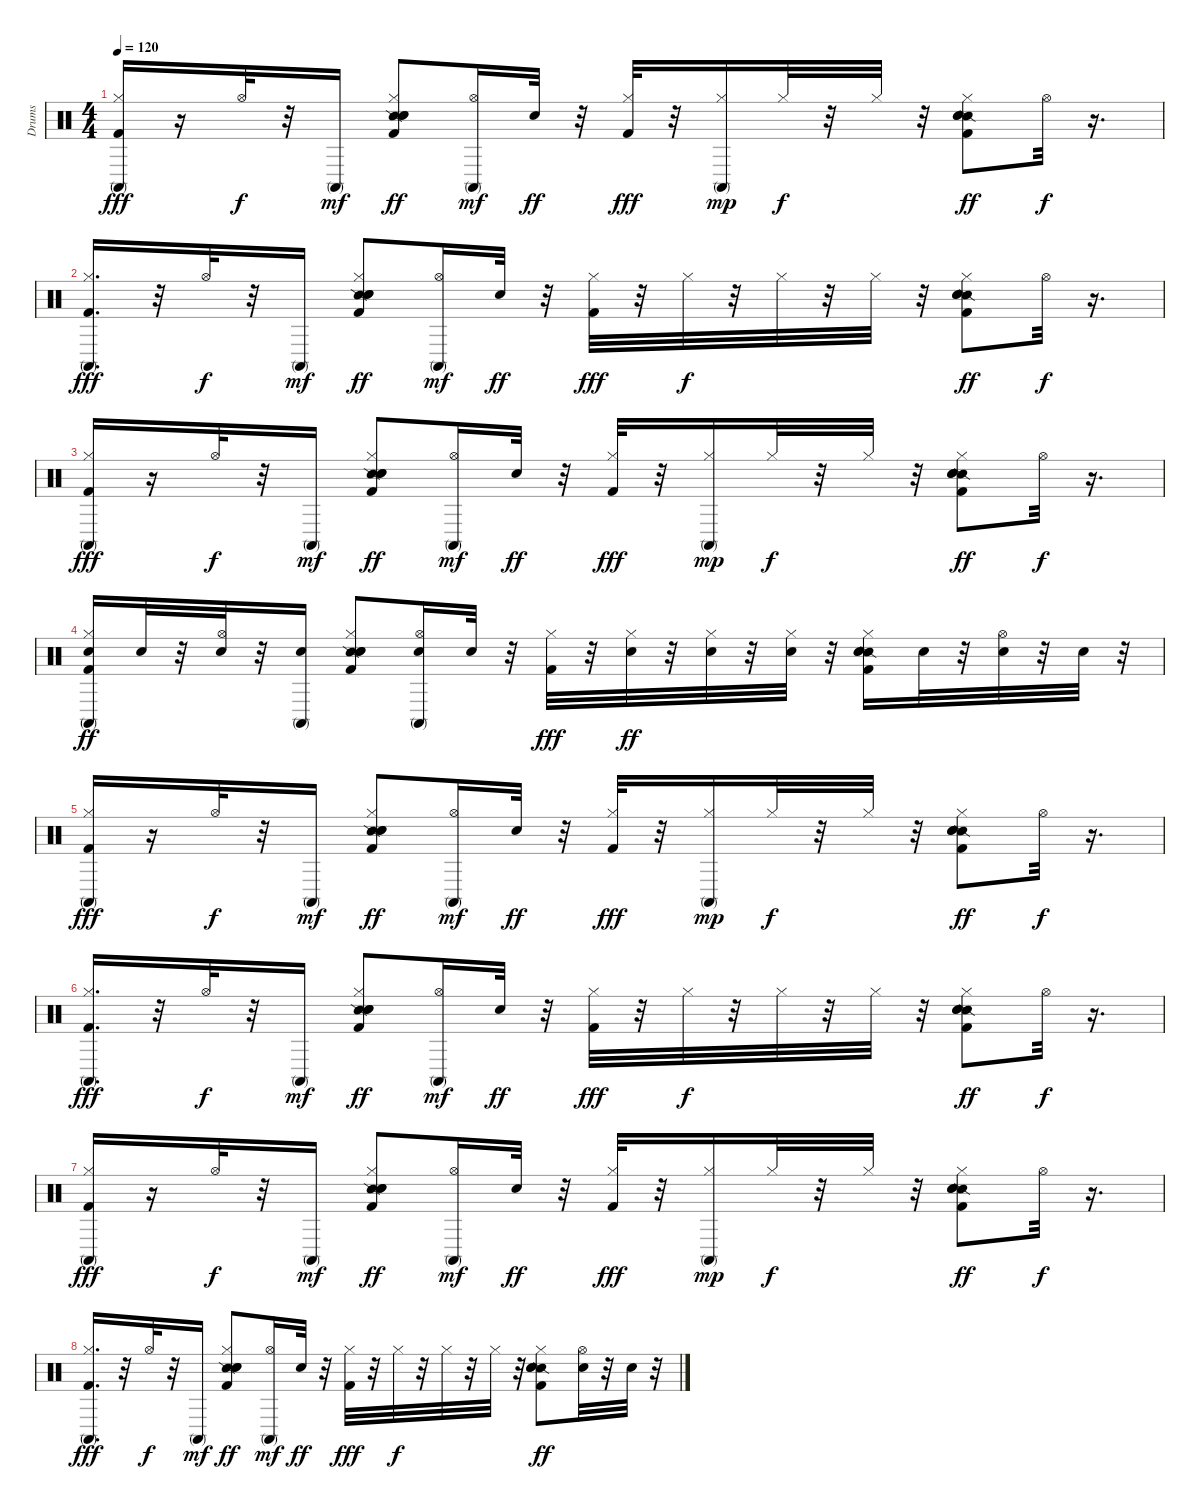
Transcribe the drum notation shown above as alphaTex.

\track ("Drums" "Drums") {instrument percussion}
\staff {score}
\articulation defaults
\ts (4 4)
\tempo 120
\clef neutral
\ks c
("Conga high (mute)" "Kick (hit) 2" "Hi-Hat (closed)").16{dy fff} r.16 "Hi-Hat (open)".32{dy f} r.32 "Conga high (mute)".16{dy mf} ("Snare (side stick) 2" "Kick (hit) 2" "Snare (hit) 2" "Hi-Hat (closed)" "Hand Clap (hit)").8{dy ff} ("Conga high (mute)" "Hi-Hat (open)").16{dy mf} "Snare (hit) 2".32{dy ff} r.32 ("Kick (hit) 2" "Hi-Hat (closed)").32{dy fff} r.32 ("Conga high (mute)" "Hi-Hat (closed)").16{dy mp} "Hi-Hat (closed)".32{dy f} r.32 "Hi-Hat (closed)".32 r.32 ("Snare (side stick) 2" "Kick (hit) 2" "Snare (hit) 2" "Hi-Hat (closed)" "Hand Clap (hit)").8{dy ff} "Hi-Hat (open)".32{dy f} r.16{d} |
("Conga high (mute)" "Kick (hit) 2" "Hi-Hat (closed)").16{d dy fff} r.32 "Hi-Hat (open)".32{dy f} r.32 "Conga high (mute)".16{dy mf} ("Snare (side stick) 2" "Kick (hit) 2" "Snare (hit) 2" "Hi-Hat (closed)" "Hand Clap (hit)").8{dy ff} ("Conga high (mute)" "Hi-Hat (open)").16{dy mf} "Snare (hit) 2".32{dy ff} r.32 ("Kick (hit) 2" "Hi-Hat (closed)").32{dy fff} r.32 "Hi-Hat (closed)".32{dy f} r.32 "Hi-Hat (closed)".32 r.32 "Hi-Hat (closed)".32 r.32 ("Snare (side stick) 2" "Kick (hit) 2" "Snare (hit) 2" "Hi-Hat (closed)" "Hand Clap (hit)").8{dy ff} "Hi-Hat (open)".32{dy f} r.16{d} |
("Conga high (mute)" "Kick (hit) 2" "Hi-Hat (closed)").16{dy fff} r.16 "Hi-Hat (open)".32{dy f} r.32 "Conga high (mute)".16{dy mf} ("Snare (side stick) 2" "Kick (hit) 2" "Snare (hit) 2" "Hi-Hat (closed)" "Hand Clap (hit)").8{dy ff} ("Conga high (mute)" "Hi-Hat (open)").16{dy mf} "Snare (hit) 2".32{dy ff} r.32 ("Kick (hit) 2" "Hi-Hat (closed)").32{dy fff} r.32 ("Conga high (mute)" "Hi-Hat (closed)").16{dy mp} "Hi-Hat (closed)".32{dy f} r.32 "Hi-Hat (closed)".32 r.32 ("Snare (side stick) 2" "Kick (hit) 2" "Snare (hit) 2" "Hi-Hat (closed)" "Hand Clap (hit)").8{dy ff} "Hi-Hat (open)".32{dy f} r.16{d} |
("Conga high (mute)" "Kick (hit) 2" "Snare (hit) 2" "Hi-Hat (closed)").16{dy ff} "Snare (hit) 2".32 r.32 ("Snare (hit) 2" "Hi-Hat (open)").32 r.32 ("Conga high (mute)" "Snare (hit) 2").16 ("Snare (side stick) 2" "Kick (hit) 2" "Snare (hit) 2" "Hi-Hat (closed)" "Hand Clap (hit)").8 ("Conga high (mute)" "Snare (hit) 2" "Hi-Hat (open)").16 "Snare (hit) 2".32 r.32 ("Kick (hit) 2" "Hi-Hat (closed)").32{dy fff} r.32 ("Snare (hit) 2" "Hi-Hat (closed)").32{dy ff} r.32 ("Snare (hit) 2" "Hi-Hat (closed)").32 r.32 ("Snare (hit) 2" "Hi-Hat (closed)").32 r.32 ("Snare (side stick) 2" "Kick (hit) 2" "Snare (hit) 2" "Hi-Hat (closed)" "Hand Clap (hit)").16 "Snare (hit) 2".32 r.32 ("Snare (hit) 2" "Hi-Hat (open)").32 r.32 "Snare (hit) 2".32 r.32 |
("Conga high (mute)" "Kick (hit) 2" "Hi-Hat (closed)").16{dy fff} r.16 "Hi-Hat (open)".32{dy f} r.32 "Conga high (mute)".16{dy mf} ("Snare (side stick) 2" "Kick (hit) 2" "Snare (hit) 2" "Hi-Hat (closed)" "Hand Clap (hit)").8{dy ff} ("Conga high (mute)" "Hi-Hat (open)").16{dy mf} "Snare (hit) 2".32{dy ff} r.32 ("Kick (hit) 2" "Hi-Hat (closed)").32{dy fff} r.32 ("Conga high (mute)" "Hi-Hat (closed)").16{dy mp} "Hi-Hat (closed)".32{dy f} r.32 "Hi-Hat (closed)".32 r.32 ("Snare (side stick) 2" "Kick (hit) 2" "Snare (hit) 2" "Hi-Hat (closed)" "Hand Clap (hit)").8{dy ff} "Hi-Hat (open)".32{dy f} r.16{d} |
("Conga high (mute)" "Kick (hit) 2" "Hi-Hat (closed)").16{d dy fff} r.32 "Hi-Hat (open)".32{dy f} r.32 "Conga high (mute)".16{dy mf} ("Snare (side stick) 2" "Kick (hit) 2" "Snare (hit) 2" "Hi-Hat (closed)" "Hand Clap (hit)").8{dy ff} ("Conga high (mute)" "Hi-Hat (open)").16{dy mf} "Snare (hit) 2".32{dy ff} r.32 ("Kick (hit) 2" "Hi-Hat (closed)").32{dy fff} r.32 "Hi-Hat (closed)".32{dy f} r.32 "Hi-Hat (closed)".32 r.32 "Hi-Hat (closed)".32 r.32 ("Snare (side stick) 2" "Kick (hit) 2" "Snare (hit) 2" "Hi-Hat (closed)" "Hand Clap (hit)").8{dy ff} "Hi-Hat (open)".32{dy f} r.16{d} |
("Conga high (mute)" "Kick (hit) 2" "Hi-Hat (closed)").16{dy fff} r.16 "Hi-Hat (open)".32{dy f} r.32 "Conga high (mute)".16{dy mf} ("Snare (side stick) 2" "Kick (hit) 2" "Snare (hit) 2" "Hi-Hat (closed)" "Hand Clap (hit)").8{dy ff} ("Conga high (mute)" "Hi-Hat (open)").16{dy mf} "Snare (hit) 2".32{dy ff} r.32 ("Kick (hit) 2" "Hi-Hat (closed)").32{dy fff} r.32 ("Conga high (mute)" "Hi-Hat (closed)").16{dy mp} "Hi-Hat (closed)".32{dy f} r.32 "Hi-Hat (closed)".32 r.32 ("Snare (side stick) 2" "Kick (hit) 2" "Snare (hit) 2" "Hi-Hat (closed)" "Hand Clap (hit)").8{dy ff} "Hi-Hat (open)".32{dy f} r.16{d} |
("Conga high (mute)" "Kick (hit) 2" "Hi-Hat (closed)").16{d dy fff} r.32 "Hi-Hat (open)".32{dy f} r.32 "Conga high (mute)".16{dy mf} ("Snare (side stick) 2" "Kick (hit) 2" "Snare (hit) 2" "Hi-Hat (closed)" "Hand Clap (hit)").8{dy ff} ("Conga high (mute)" "Hi-Hat (open)").16{dy mf} "Snare (hit) 2".32{dy ff} r.32 ("Kick (hit) 2" "Hi-Hat (closed)").32{dy fff} r.32 "Hi-Hat (closed)".32{dy f} r.32 "Hi-Hat (closed)".32 r.32 "Hi-Hat (closed)".32 r.32 ("Snare (side stick) 2" "Kick (hit) 2" "Snare (hit) 2" "Hi-Hat (closed)" "Hand Clap (hit)").8{dy ff} ("Snare (hit) 2" "Hi-Hat (open)").32 r.32 "Snare (hit) 2".32 r.32
